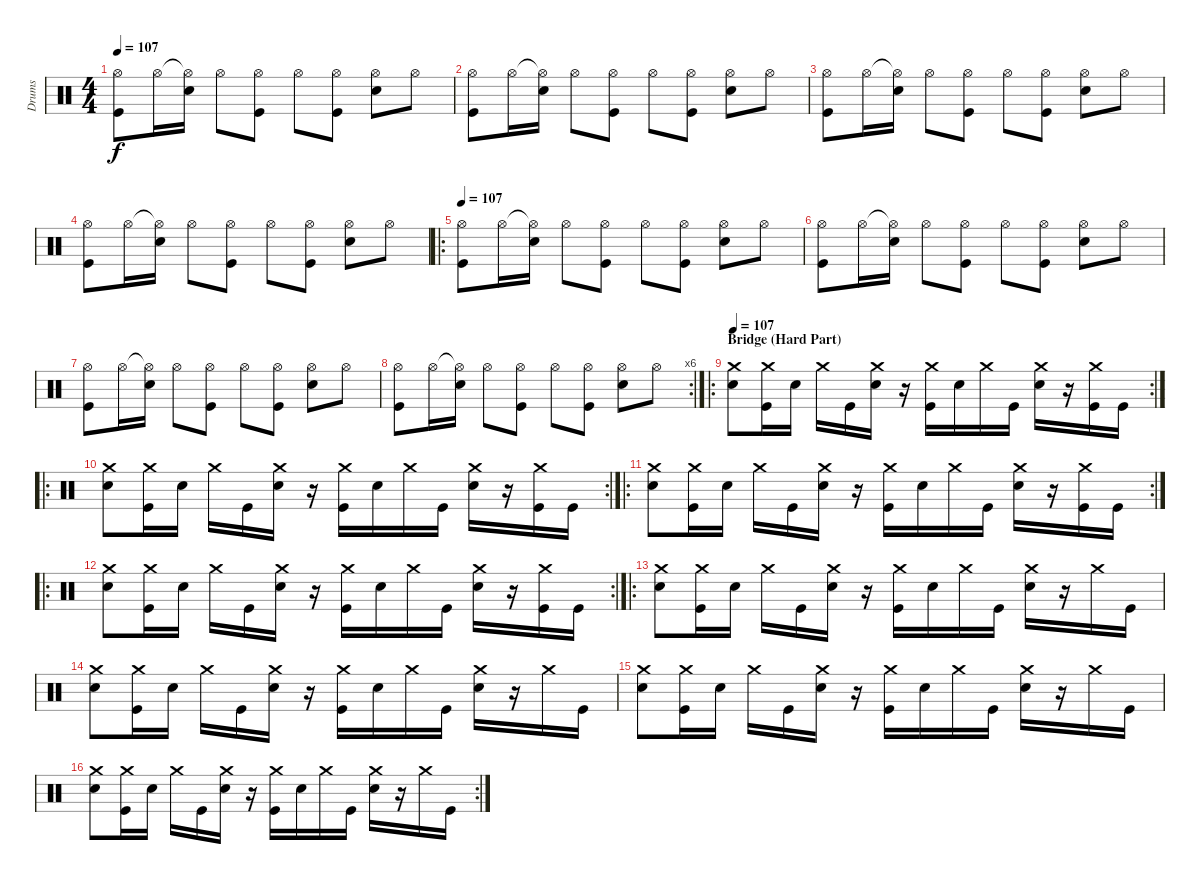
\track ("Drums" "Drums") {instrument percussion}
\staff {score}
\articulation defaults
\ts (4 4)
\tempo 107
\clef neutral
\ks c
("Hi-Hat (open)" "Kick (hit)").8{dy f} "Hi-Hat (open)".16 ("Hi-Hat (open)"{t} "Electric Snare (hit)").16 "Hi-Hat (open)".8 ("Hi-Hat (open)" "Kick (hit)").8 "Hi-Hat (open)".8 ("Hi-Hat (open)" "Kick (hit)").8 ("Hi-Hat (open)" "Electric Snare (hit)").8 "Hi-Hat (open)".8 |
("Hi-Hat (open)" "Kick (hit)").8 "Hi-Hat (open)".16 ("Hi-Hat (open)"{t} "Electric Snare (hit)").16 "Hi-Hat (open)".8 ("Hi-Hat (open)" "Kick (hit)").8 "Hi-Hat (open)".8 ("Hi-Hat (open)" "Kick (hit)").8 ("Hi-Hat (open)" "Electric Snare (hit)").8 "Hi-Hat (open)".8 |
("Hi-Hat (open)" "Kick (hit)").8 "Hi-Hat (open)".16 ("Hi-Hat (open)"{t} "Electric Snare (hit)").16 "Hi-Hat (open)".8 ("Hi-Hat (open)" "Kick (hit)").8 "Hi-Hat (open)".8 ("Hi-Hat (open)" "Kick (hit)").8 ("Hi-Hat (open)" "Electric Snare (hit)").8 "Hi-Hat (open)".8 |
("Hi-Hat (open)" "Kick (hit)").8 "Hi-Hat (open)".16 ("Hi-Hat (open)"{t} "Electric Snare (hit)").16 "Hi-Hat (open)".8 ("Hi-Hat (open)" "Kick (hit)").8 "Hi-Hat (open)".8 ("Hi-Hat (open)" "Kick (hit)").8 ("Hi-Hat (open)" "Electric Snare (hit)").8 "Hi-Hat (open)".8 |
\ro
\tempo 107
("Hi-Hat (open)" "Kick (hit)").8 "Hi-Hat (open)".16 ("Hi-Hat (open)"{t} "Electric Snare (hit)").16 "Hi-Hat (open)".8 ("Hi-Hat (open)" "Kick (hit)").8 "Hi-Hat (open)".8 ("Hi-Hat (open)" "Kick (hit)").8 ("Hi-Hat (open)" "Electric Snare (hit)").8 "Hi-Hat (open)".8 |
("Hi-Hat (open)" "Kick (hit)").8 "Hi-Hat (open)".16 ("Hi-Hat (open)"{t} "Electric Snare (hit)").16 "Hi-Hat (open)".8 ("Hi-Hat (open)" "Kick (hit)").8 "Hi-Hat (open)".8 ("Hi-Hat (open)" "Kick (hit)").8 ("Hi-Hat (open)" "Electric Snare (hit)").8 "Hi-Hat (open)".8 |
("Hi-Hat (open)" "Kick (hit)").8 "Hi-Hat (open)".16 ("Hi-Hat (open)"{t} "Electric Snare (hit)").16 "Hi-Hat (open)".8 ("Hi-Hat (open)" "Kick (hit)").8 "Hi-Hat (open)".8 ("Hi-Hat (open)" "Kick (hit)").8 ("Hi-Hat (open)" "Electric Snare (hit)").8 "Hi-Hat (open)".8 |
\rc 6
("Hi-Hat (open)" "Kick (hit)").8 "Hi-Hat (open)".16 ("Hi-Hat (open)"{t} "Electric Snare (hit)").16 "Hi-Hat (open)".8 ("Hi-Hat (open)" "Kick (hit)").8 "Hi-Hat (open)".8 ("Hi-Hat (open)" "Kick (hit)").8 ("Hi-Hat (open)" "Electric Snare (hit)").8 "Hi-Hat (open)".8 |
\ro
\rc 2
\section ("" "Bridge (Hard Part)")
\tempo 107
("Crash medium (hit)" "Electric Snare (hit)").8 ("Crash medium (hit)" "Kick (hit)").16 "Electric Snare (hit)".16 "Crash medium (hit)".16 "Kick (hit)".16 ("Crash medium (hit)" "Electric Snare (hit)").16 r.16 ("Crash medium (hit)" "Kick (hit)").16 "Electric Snare (hit)".16 "Crash medium (hit)".16 "Kick (hit)".16 ("Crash medium (hit)" "Electric Snare (hit)").16 r.16 ("Crash medium (hit)" "Kick (hit)").16 "Kick (hit)".16 |
\ro
\rc 2
("Crash medium (hit)" "Electric Snare (hit)").8 ("Crash medium (hit)" "Kick (hit)").16 "Electric Snare (hit)".16 "Crash medium (hit)".16 "Kick (hit)".16 ("Crash medium (hit)" "Electric Snare (hit)").16 r.16 ("Crash medium (hit)" "Kick (hit)").16 "Electric Snare (hit)".16 "Crash medium (hit)".16 "Kick (hit)".16 ("Crash medium (hit)" "Electric Snare (hit)").16 r.16 ("Crash medium (hit)" "Kick (hit)").16 "Kick (hit)".16 |
\ro
\rc 2
("Crash medium (hit)" "Electric Snare (hit)").8 ("Crash medium (hit)" "Kick (hit)").16 "Electric Snare (hit)".16 "Crash medium (hit)".16 "Kick (hit)".16 ("Crash medium (hit)" "Electric Snare (hit)").16 r.16 ("Crash medium (hit)" "Kick (hit)").16 "Electric Snare (hit)".16 "Crash medium (hit)".16 "Kick (hit)".16 ("Crash medium (hit)" "Electric Snare (hit)").16 r.16 ("Crash medium (hit)" "Kick (hit)").16 "Kick (hit)".16 |
\ro
\rc 2
("Crash medium (hit)" "Electric Snare (hit)").8 ("Crash medium (hit)" "Kick (hit)").16 "Electric Snare (hit)".16 "Crash medium (hit)".16 "Kick (hit)".16 ("Crash medium (hit)" "Electric Snare (hit)").16 r.16 ("Crash medium (hit)" "Kick (hit)").16 "Electric Snare (hit)".16 "Crash medium (hit)".16 "Kick (hit)".16 ("Crash medium (hit)" "Electric Snare (hit)").16 r.16 ("Crash medium (hit)" "Kick (hit)").16 "Kick (hit)".16 |
\ro
("Crash medium (hit)" "Electric Snare (hit)").8 ("Crash medium (hit)" "Kick (hit)").16 "Electric Snare (hit)".16 "Crash medium (hit)".16 "Kick (hit)".16 ("Crash medium (hit)" "Electric Snare (hit)").16 r.16 ("Crash medium (hit)" "Kick (hit)").16 "Electric Snare (hit)".16 "Crash medium (hit)".16 "Kick (hit)".16 ("Crash medium (hit)" "Electric Snare (hit)").16 r.16 "Crash medium (hit)".16 "Kick (hit)".16 |
("Crash medium (hit)" "Electric Snare (hit)").8 ("Crash medium (hit)" "Kick (hit)").16 "Electric Snare (hit)".16 "Crash medium (hit)".16 "Kick (hit)".16 ("Crash medium (hit)" "Electric Snare (hit)").16 r.16 ("Crash medium (hit)" "Kick (hit)").16 "Electric Snare (hit)".16 "Crash medium (hit)".16 "Kick (hit)".16 ("Crash medium (hit)" "Electric Snare (hit)").16 r.16 "Crash medium (hit)".16 "Kick (hit)".16 |
("Crash medium (hit)" "Electric Snare (hit)").8 ("Crash medium (hit)" "Kick (hit)").16 "Electric Snare (hit)".16 "Crash medium (hit)".16 "Kick (hit)".16 ("Crash medium (hit)" "Electric Snare (hit)").16 r.16 ("Crash medium (hit)" "Kick (hit)").16 "Electric Snare (hit)".16 "Crash medium (hit)".16 "Kick (hit)".16 ("Crash medium (hit)" "Electric Snare (hit)").16 r.16 "Crash medium (hit)".16 "Kick (hit)".16 |
\rc 2
("Crash medium (hit)" "Electric Snare (hit)").8 ("Crash medium (hit)" "Kick (hit)").16 "Electric Snare (hit)".16 "Crash medium (hit)".16 "Kick (hit)".16 ("Crash medium (hit)" "Electric Snare (hit)").16 r.16 ("Crash medium (hit)" "Kick (hit)").16 "Electric Snare (hit)".16 "Crash medium (hit)".16 "Kick (hit)".16 ("Crash medium (hit)" "Electric Snare (hit)").16 r.16 "Crash medium (hit)".16 "Kick (hit)".16
